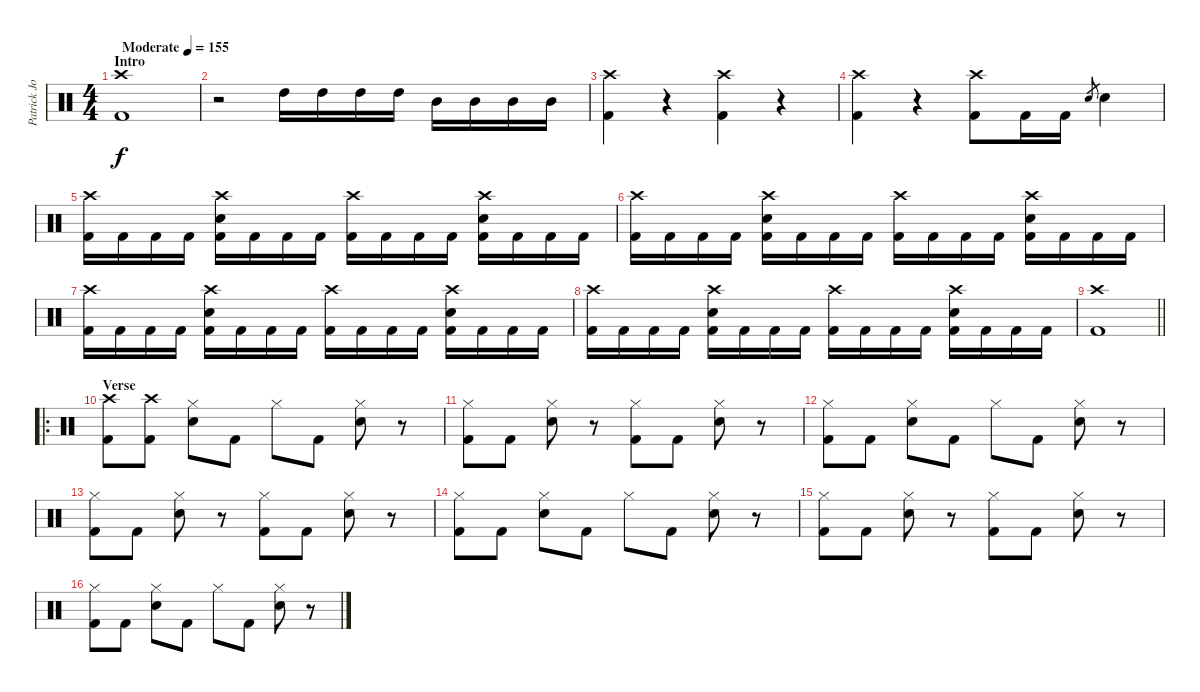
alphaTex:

\track ("Patrick Johansson" "Patrick Jo") {instrument percussion}
\staff {score}
\articulation defaults
\ts (4 4)
\section ("" "Intro")
\tempo (155 "Moderate")
\clef neutral
\ks c
("Crash high (hit)" "Kick (hit) 2").1{dy f} |
r.2 "High Tom (hit)".16 "High Tom (hit)".16 "High Tom (hit)".16 "High Tom (hit)".16 "Mid Tom (hit)".16 "Mid Tom (hit)".16 "Mid Tom (hit)".16 "Mid Tom (hit)".16 |
("Crash high (hit)" "Kick (hit) 2").4 r.4 ("Crash high (hit)" "Kick (hit) 2").4 r.4 |
("Crash high (hit)" "Kick (hit) 2").4 r.4 ("Crash high (hit)" "Kick (hit) 2").8 "Kick (hit) 2".16 "Kick (hit) 2".16 "Electric Snare (hit)".8{gr} "Electric Snare (hit)".4 |
("Crash high (hit)" "Kick (hit) 2").16 "Kick (hit) 2".16 "Kick (hit) 2".16 "Kick (hit) 2".16 ("Crash high (hit)" "Electric Snare (hit)" "Kick (hit) 2").16 "Kick (hit) 2".16 "Kick (hit) 2".16 "Kick (hit) 2".16 ("Crash high (hit)" "Kick (hit) 2").16 "Kick (hit) 2".16 "Kick (hit) 2".16 "Kick (hit) 2".16 ("Crash high (hit)" "Electric Snare (hit)" "Kick (hit) 2").16 "Kick (hit) 2".16 "Kick (hit) 2".16 "Kick (hit) 2".16 |
("Crash high (hit)" "Kick (hit) 2").16 "Kick (hit) 2".16 "Kick (hit) 2".16 "Kick (hit) 2".16 ("Crash high (hit)" "Electric Snare (hit)" "Kick (hit) 2").16 "Kick (hit) 2".16 "Kick (hit) 2".16 "Kick (hit) 2".16 ("Crash high (hit)" "Kick (hit) 2").16 "Kick (hit) 2".16 "Kick (hit) 2".16 "Kick (hit) 2".16 ("Crash high (hit)" "Electric Snare (hit)" "Kick (hit) 2").16 "Kick (hit) 2".16 "Kick (hit) 2".16 "Kick (hit) 2".16 |
("Crash high (hit)" "Kick (hit) 2").16 "Kick (hit) 2".16 "Kick (hit) 2".16 "Kick (hit) 2".16 ("Crash high (hit)" "Electric Snare (hit)" "Kick (hit) 2").16 "Kick (hit) 2".16 "Kick (hit) 2".16 "Kick (hit) 2".16 ("Crash high (hit)" "Kick (hit) 2").16 "Kick (hit) 2".16 "Kick (hit) 2".16 "Kick (hit) 2".16 ("Crash high (hit)" "Electric Snare (hit)" "Kick (hit) 2").16 "Kick (hit) 2".16 "Kick (hit) 2".16 "Kick (hit) 2".16 |
("Crash high (hit)" "Kick (hit) 2").16 "Kick (hit) 2".16 "Kick (hit) 2".16 "Kick (hit) 2".16 ("Crash high (hit)" "Electric Snare (hit)" "Kick (hit) 2").16 "Kick (hit) 2".16 "Kick (hit) 2".16 "Kick (hit) 2".16 ("Crash high (hit)" "Kick (hit) 2").16 "Kick (hit) 2".16 "Kick (hit) 2".16 "Kick (hit) 2".16 ("Crash high (hit)" "Electric Snare (hit)" "Kick (hit) 2").16 "Kick (hit) 2".16 "Kick (hit) 2".16 "Kick (hit) 2".16 |
\barLineRight lightlight
("Crash high (hit)" "Kick (hit) 2").1 |
\ro
\section ("" "Verse")
("Crash high (hit)" "Kick (hit) 2").8 ("Crash high (hit)" "Kick (hit) 2").8 ("Electric Snare (hit)" "Hi-Hat (closed)").8 "Kick (hit) 2".8 "Hi-Hat (closed)".8 "Kick (hit) 2".8 ("Electric Snare (hit)" "Hi-Hat (closed)").8 r.8 |
("Hi-Hat (closed)" "Kick (hit) 2").8 "Kick (hit) 2".8 ("Electric Snare (hit)" "Hi-Hat (closed)").8 r.8 ("Hi-Hat (closed)" "Kick (hit) 2").8 "Kick (hit) 2".8 ("Electric Snare (hit)" "Hi-Hat (closed)").8 r.8 |
("Hi-Hat (closed)" "Kick (hit) 2").8 "Kick (hit) 2".8 ("Electric Snare (hit)" "Hi-Hat (closed)").8 "Kick (hit) 2".8 "Hi-Hat (closed)".8 "Kick (hit) 2".8 ("Electric Snare (hit)" "Hi-Hat (closed)").8 r.8 |
("Hi-Hat (closed)" "Kick (hit) 2").8 "Kick (hit) 2".8 ("Electric Snare (hit)" "Hi-Hat (closed)").8 r.8 ("Hi-Hat (closed)" "Kick (hit) 2").8 "Kick (hit) 2".8 ("Electric Snare (hit)" "Hi-Hat (closed)").8 r.8 |
("Hi-Hat (closed)" "Kick (hit) 2").8 "Kick (hit) 2".8 ("Electric Snare (hit)" "Hi-Hat (closed)").8 "Kick (hit) 2".8 "Hi-Hat (closed)".8 "Kick (hit) 2".8 ("Electric Snare (hit)" "Hi-Hat (closed)").8 r.8 |
("Hi-Hat (closed)" "Kick (hit) 2").8 "Kick (hit) 2".8 ("Electric Snare (hit)" "Hi-Hat (closed)").8 r.8 ("Hi-Hat (closed)" "Kick (hit) 2").8 "Kick (hit) 2".8 ("Electric Snare (hit)" "Hi-Hat (closed)").8 r.8 |
("Hi-Hat (closed)" "Kick (hit) 2").8 "Kick (hit) 2".8 ("Electric Snare (hit)" "Hi-Hat (closed)").8 "Kick (hit) 2".8 "Hi-Hat (closed)".8 "Kick (hit) 2".8 ("Electric Snare (hit)" "Hi-Hat (closed)").8 r.8
